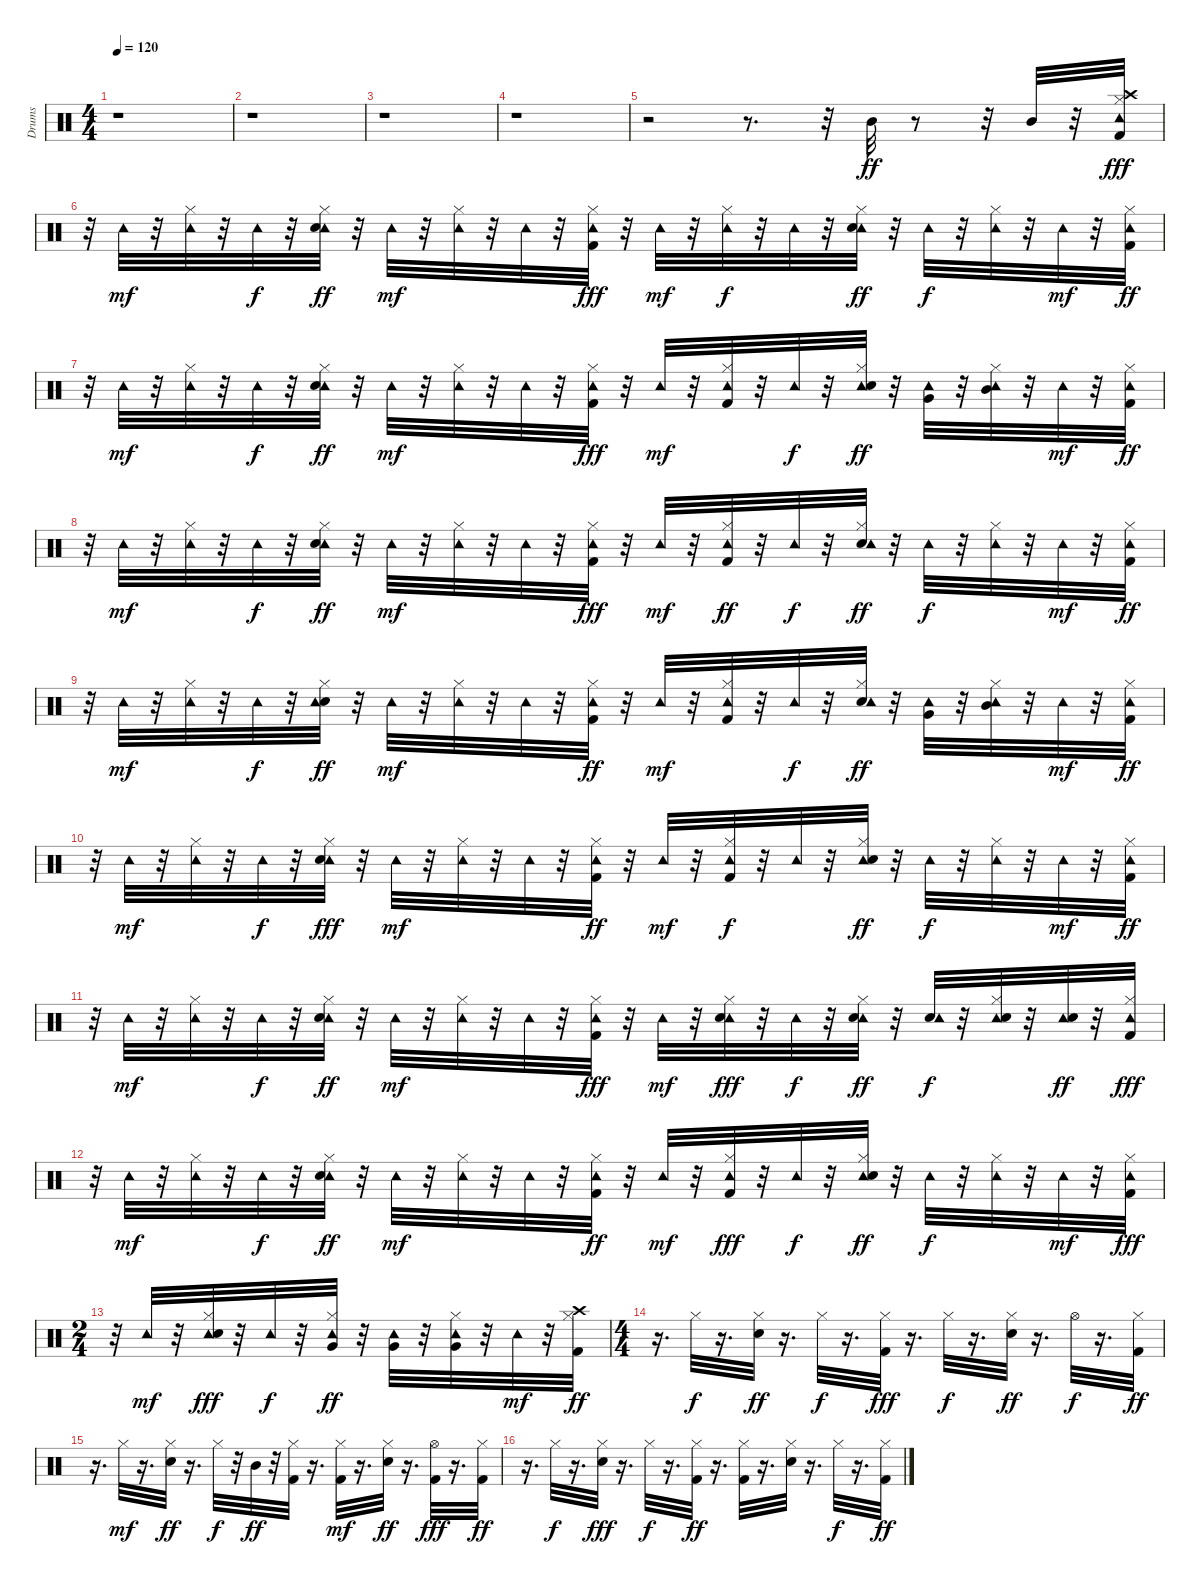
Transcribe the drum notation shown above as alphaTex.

\track ("Drums" "Drums") {instrument percussion}
\staff {score}
\articulation defaults
\ts (4 4)
\tempo 120
\clef neutral
\ks c
r.1{dy ff} |
r.1 |
r.1 |
r.1 |
r.2 r.8{d} r.32 "Mid Tom (hit)".32 r.8 r.32 "Mid Tom (hit)".32 r.32 ("Tambourine (hit)" "Crash high (hit)" "Hi-Hat (closed)" "Kick (hit) 2").32{dy fff} |
r.32 "Tambourine (hit)".32{dy mf} r.32 ("Tambourine (hit)" "Hi-Hat (closed)").32 r.32 "Tambourine (hit)".32{dy f} r.32 ("Tambourine (hit)" "Snare (hit) 2" "Hi-Hat (closed)").32{dy ff} r.32 "Tambourine (hit)".32{dy mf} r.32 ("Tambourine (hit)" "Hi-Hat (closed)").32 r.32 "Tambourine (hit)".32 r.32 ("Tambourine (hit)" "Hi-Hat (closed)" "Kick (hit) 2").32{dy fff} r.32 "Tambourine (hit)".32{dy mf} r.32 ("Tambourine (hit)" "Hi-Hat (closed)").32{dy f} r.32 "Tambourine (hit)".32 r.32 ("Tambourine (hit)" "Snare (hit) 2" "Hi-Hat (closed)").32{dy ff} r.32 "Tambourine (hit)".32{dy f} r.32 ("Tambourine (hit)" "Hi-Hat (closed)").32 r.32 "Tambourine (hit)".32{dy mf} r.32 ("Kick (hit) 2" "Tambourine (hit)" "Hi-Hat (closed)").32{dy ff} |
r.32 "Tambourine (hit)".32{dy mf} r.32 ("Tambourine (hit)" "Hi-Hat (closed)").32 r.32 "Tambourine (hit)".32{dy f} r.32 ("Tambourine (hit)" "Snare (hit) 2" "Hi-Hat (closed)").32{dy ff} r.32 "Tambourine (hit)".32{dy mf} r.32 ("Tambourine (hit)" "Hi-Hat (closed)").32 r.32 "Tambourine (hit)".32 r.32 ("Tambourine (hit)" "Hi-Hat (closed)" "Kick (hit) 2").32{dy fff} r.32 "Tambourine (hit)".32{dy mf} r.32 ("Tambourine (hit)" "Kick (hit) 2" "Hi-Hat (closed)").32 r.32 "Tambourine (hit)".32{dy f} r.32 ("Tambourine (hit)" "Snare (hit) 2" "Hi-Hat (closed)").32{dy ff} r.32 ("Tambourine (hit)" "Very Low Tom (hit)").32 r.32 ("Tambourine (hit)" "Mid Tom (hit)" "Hi-Hat (closed)").32 r.32 "Tambourine (hit)".32{dy mf} r.32 ("Tambourine (hit)" "Kick (hit) 2" "Hi-Hat (closed)").32{dy ff} |
r.32 "Tambourine (hit)".32{dy mf} r.32 ("Tambourine (hit)" "Hi-Hat (closed)").32 r.32 "Tambourine (hit)".32{dy f} r.32 ("Tambourine (hit)" "Snare (hit) 2" "Hi-Hat (closed)").32{dy ff} r.32 "Tambourine (hit)".32{dy mf} r.32 ("Tambourine (hit)" "Hi-Hat (closed)").32 r.32 "Tambourine (hit)".32 r.32 ("Tambourine (hit)" "Hi-Hat (closed)" "Kick (hit) 2").32{dy fff} r.32 "Tambourine (hit)".32{dy mf} r.32 ("Tambourine (hit)" "Kick (hit) 2" "Hi-Hat (closed)").32{dy ff} r.32 "Tambourine (hit)".32{dy f} r.32 ("Snare (hit) 2" "Tambourine (hit)" "Hi-Hat (closed)").32{dy ff} r.32 "Tambourine (hit)".32{dy f} r.32 ("Tambourine (hit)" "Hi-Hat (closed)").32 r.32 "Tambourine (hit)".32{dy mf} r.32 ("Tambourine (hit)" "Kick (hit) 2" "Hi-Hat (closed)").32{dy ff} |
r.32 "Tambourine (hit)".32{dy mf} r.32 ("Tambourine (hit)" "Hi-Hat (closed)").32 r.32 "Tambourine (hit)".32{dy f} r.32 ("Snare (hit) 2" "Tambourine (hit)" "Hi-Hat (closed)").32{dy ff} r.32 "Tambourine (hit)".32{dy mf} r.32 ("Tambourine (hit)" "Hi-Hat (closed)").32 r.32 "Tambourine (hit)".32 r.32 ("Tambourine (hit)" "Kick (hit) 2" "Hi-Hat (closed)").32{dy ff} r.32 "Tambourine (hit)".32{dy mf} r.32 ("Tambourine (hit)" "Kick (hit) 2" "Hi-Hat (closed)").32 r.32 "Tambourine (hit)".32{dy f} r.32 ("Snare (hit) 2" "Tambourine (hit)" "Hi-Hat (closed)").32{dy ff} r.32 ("Tambourine (hit)" "Very Low Tom (hit)").32 r.32 ("Tambourine (hit)" "Mid Tom (hit)" "Hi-Hat (closed)").32 r.32 "Tambourine (hit)".32{dy mf} r.32 ("Tambourine (hit)" "Kick (hit) 2" "Hi-Hat (closed)").32{dy ff} |
r.32 "Tambourine (hit)".32{dy mf} r.32 ("Tambourine (hit)" "Hi-Hat (closed)").32 r.32 "Tambourine (hit)".32{dy f} r.32 ("Tambourine (hit)" "Hi-Hat (closed)" "Snare (hit) 2").32{dy fff} r.32 "Tambourine (hit)".32{dy mf} r.32 ("Tambourine (hit)" "Hi-Hat (closed)").32 r.32 "Tambourine (hit)".32 r.32 ("Tambourine (hit)" "Kick (hit) 2" "Hi-Hat (closed)").32{dy ff} r.32 "Tambourine (hit)".32{dy mf} r.32 ("Tambourine (hit)" "Hi-Hat (closed)" "Kick (hit) 2").32{dy f} r.32 "Tambourine (hit)".32 r.32 ("Tambourine (hit)" "Snare (hit) 2" "Hi-Hat (closed)").32{dy ff} r.32 "Tambourine (hit)".32{dy f} r.32 ("Tambourine (hit)" "Hi-Hat (closed)").32 r.32 "Tambourine (hit)".32{dy mf} r.32 ("Tambourine (hit)" "Kick (hit) 2" "Hi-Hat (closed)").32{dy ff} |
r.32 "Tambourine (hit)".32{dy mf} r.32 ("Tambourine (hit)" "Hi-Hat (closed)").32 r.32 "Tambourine (hit)".32{dy f} r.32 ("Tambourine (hit)" "Snare (hit) 2" "Hi-Hat (closed)").32{dy ff} r.32 "Tambourine (hit)".32{dy mf} r.32 ("Tambourine (hit)" "Hi-Hat (closed)").32 r.32 "Tambourine (hit)".32 r.32 ("Tambourine (hit)" "Hi-Hat (closed)" "Kick (hit) 2").32{dy fff} r.32 "Tambourine (hit)".32{dy mf} r.32 ("Tambourine (hit)" "Hi-Hat (closed)" "Snare (hit) 2").32{dy fff} r.32 "Tambourine (hit)".32{dy f} r.32 ("Tambourine (hit)" "Snare (hit) 2" "Hi-Hat (closed)").32{dy ff} r.32 ("Snare (hit) 2" "Tambourine (hit)").32{dy f} r.32 ("Tambourine (hit)" "Snare (hit) 2" "Hi-Hat (closed)").32 r.32 ("Tambourine (hit)" "Snare (hit) 2").32{dy ff} r.32 ("Tambourine (hit)" "Hi-Hat (closed)" "Kick (hit) 2").32{dy fff} |
r.32 "Tambourine (hit)".32{dy mf} r.32 ("Tambourine (hit)" "Hi-Hat (closed)").32 r.32 "Tambourine (hit)".32{dy f} r.32 ("Tambourine (hit)" "Snare (hit) 2" "Hi-Hat (closed)").32{dy ff} r.32 "Tambourine (hit)".32{dy mf} r.32 ("Tambourine (hit)" "Hi-Hat (closed)").32 r.32 "Tambourine (hit)".32 r.32 ("Kick (hit) 2" "Tambourine (hit)" "Hi-Hat (closed)").32{dy ff} r.32 "Tambourine (hit)".32{dy mf} r.32 ("Tambourine (hit)" "Hi-Hat (closed)" "Kick (hit) 2").32{dy fff} r.32 "Tambourine (hit)".32{dy f} r.32 ("Tambourine (hit)" "Snare (hit) 2" "Hi-Hat (closed)").32{dy ff} r.32 "Tambourine (hit)".32{dy f} r.32 ("Tambourine (hit)" "Hi-Hat (closed)").32 r.32 "Tambourine (hit)".32{dy mf} r.32 ("Tambourine (hit)" "Hi-Hat (closed)" "Kick (hit) 2").32{dy fff} |
\ts (2 4)
r.32 "Tambourine (hit)".32{dy mf} r.32 ("Tambourine (hit)" "Snare (hit) 2" "Hi-Hat (closed)").32{dy fff} r.32 "Tambourine (hit)".32{dy f} r.32 ("Tambourine (hit)" "Very Low Tom (hit)" "Hi-Hat (closed)").32{dy ff} r.32 ("Tambourine (hit)" "Very Low Tom (hit)").32 r.32 ("Tambourine (hit)" "Very Low Tom (hit)" "Hi-Hat (closed)").32 r.32 "Tambourine (hit)".32{dy mf} r.32 ("Crash high (hit)" "Kick (hit) 2" "Hi-Hat (closed)").32{dy ff} |
\ts (4 4)
r.16{d} "Hi-Hat (closed)".32{dy f} r.16{d} ("Snare (hit) 2" "Hi-Hat (closed)").32{dy ff} r.16{d} "Hi-Hat (closed)".32{dy f} r.16{d} ("Hi-Hat (closed)" "Kick (hit) 2").32{dy fff} r.16{d} "Hi-Hat (closed)".32{dy f} r.16{d} ("Snare (hit) 2" "Hi-Hat (closed)").32{dy ff} r.16{d} "Hi-Hat (open)".32{dy f} r.16{d} ("Kick (hit) 2" "Hi-Hat (closed)").32{dy ff} |
r.16{d} "Hi-Hat (closed)".32{dy mf} r.16{d} ("Snare (hit) 2" "Hi-Hat (closed)").32{dy ff} r.16{d} "Hi-Hat (closed)".32{dy f} r.32 "Mid Tom (hit)".32{dy ff} r.32 ("Kick (hit) 2" "Hi-Hat (closed)").32 r.16{d} ("Kick (hit) 2" "Hi-Hat (closed)").32{dy mf} r.16{d} ("Snare (hit) 2" "Hi-Hat (closed)").32{dy ff} r.16{d} ("Hi-Hat (open)" "Kick (hit) 2").32{dy fff} r.16{d} ("Kick (hit) 2" "Hi-Hat (closed)").32{dy ff} |
r.16{d} "Hi-Hat (closed)".32{dy f} r.16{d} ("Hi-Hat (closed)" "Snare (hit) 2").32{dy fff} r.16{d} "Hi-Hat (closed)".32{dy f} r.16{d} ("Kick (hit) 2" "Hi-Hat (closed)").32{dy ff} r.16{d} ("Hi-Hat (closed)" "Kick (hit) 2").32 r.16{d} ("Snare (hit) 2" "Hi-Hat (closed)").32 r.16{d} "Hi-Hat (closed)".32{dy f} r.16{d} ("Kick (hit) 2" "Hi-Hat (closed)").32{dy ff}
